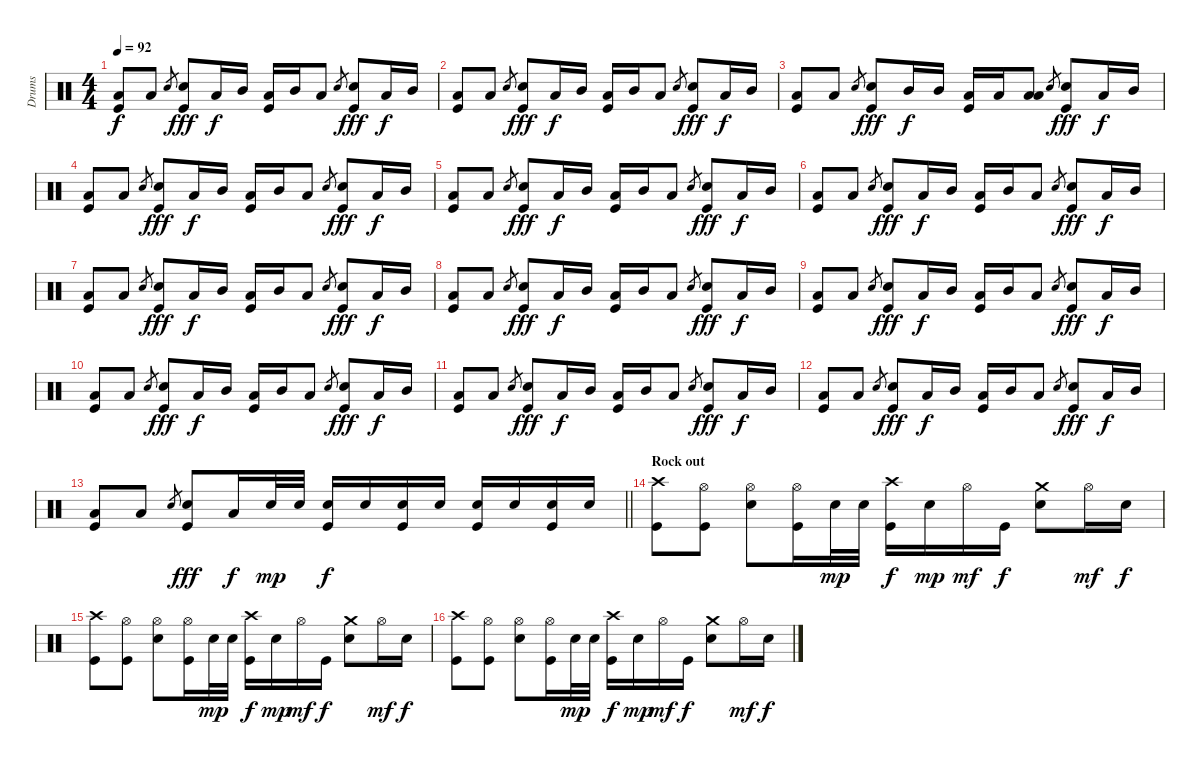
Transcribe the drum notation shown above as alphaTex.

\track ("Drums" "Drums") {instrument percussion}
\staff {score}
\articulation defaults
\ts (4 4)
\tempo 92
\clef neutral
\ks c
("Low Floor Tom (hit)" "Kick (hit)").8{dy f} "Low Floor Tom (hit)".8 "Electric Snare (hit)".8{gr} ("Electric Snare (hit)" "Kick (hit)").8{dy fff} "Low Floor Tom (hit)".16{dy f} "Mid Tom (hit)".16 ("Low Floor Tom (hit)" "Kick (hit)").16 "Mid Tom (hit)".16 "Low Tom (hit)".8 "Electric Snare (hit)".8{gr} ("Electric Snare (hit)" "Kick (hit)").8{dy fff} "Low Tom (hit)".16{dy f} "Mid Tom (hit)".16 |
("Low Floor Tom (hit)" "Kick (hit)").8 "Low Floor Tom (hit)".8 "Electric Snare (hit)".8{gr} ("Electric Snare (hit)" "Kick (hit)").8{dy fff} "Low Floor Tom (hit)".16{dy f} "Mid Tom (hit)".16 ("Low Floor Tom (hit)" "Kick (hit)").16 "Mid Tom (hit)".16 "Low Tom (hit)".8 "Electric Snare (hit)".8{gr} ("Electric Snare (hit)" "Kick (hit)").8{dy fff} "Low Tom (hit)".16{dy f} "Mid Tom (hit)".16 |
("Low Floor Tom (hit)" "Kick (hit)").8 "Low Floor Tom (hit)".8 "Electric Snare (hit)".8{gr} ("Electric Snare (hit)" "Kick (hit)").8{dy fff} "Mid Tom (hit)".16{dy f} "Mid Tom (hit)".16 ("Low Tom (hit)" "Kick (hit)").16 "Low Tom (hit)".16 ("Low Tom (hit)" "Low Floor Tom (hit)").8 "Electric Snare (hit)".8{gr} ("Electric Snare (hit)" "Kick (hit)").8{dy fff} "Low Tom (hit)".16{dy f} "Mid Tom (hit)".16 |
("Low Floor Tom (hit)" "Kick (hit)").8 "Low Floor Tom (hit)".8 "Electric Snare (hit)".8{gr} ("Electric Snare (hit)" "Kick (hit)").8{dy fff} "Low Floor Tom (hit)".16{dy f} "Mid Tom (hit)".16 ("Low Floor Tom (hit)" "Kick (hit)").16 "Mid Tom (hit)".16 "Low Tom (hit)".8 "Electric Snare (hit)".8{gr} ("Electric Snare (hit)" "Kick (hit)").8{dy fff} "Low Tom (hit)".16{dy f} "Mid Tom (hit)".16 |
("Low Floor Tom (hit)" "Kick (hit)").8 "Low Floor Tom (hit)".8 "Electric Snare (hit)".8{gr} ("Electric Snare (hit)" "Kick (hit)").8{dy fff} "Low Floor Tom (hit)".16{dy f} "Mid Tom (hit)".16 ("Low Floor Tom (hit)" "Kick (hit)").16 "Mid Tom (hit)".16 "Low Tom (hit)".8 "Electric Snare (hit)".8{gr} ("Electric Snare (hit)" "Kick (hit)").8{dy fff} "Low Tom (hit)".16{dy f} "Mid Tom (hit)".16 |
("Low Floor Tom (hit)" "Kick (hit)").8 "Low Floor Tom (hit)".8 "Electric Snare (hit)".8{gr} ("Electric Snare (hit)" "Kick (hit)").8{dy fff} "Low Floor Tom (hit)".16{dy f} "Mid Tom (hit)".16 ("Low Floor Tom (hit)" "Kick (hit)").16 "Mid Tom (hit)".16 "Low Tom (hit)".8 "Electric Snare (hit)".8{gr} ("Electric Snare (hit)" "Kick (hit)").8{dy fff} "Low Tom (hit)".16{dy f} "Mid Tom (hit)".16 |
("Low Floor Tom (hit)" "Kick (hit)").8 "Low Floor Tom (hit)".8 "Electric Snare (hit)".8{gr} ("Electric Snare (hit)" "Kick (hit)").8{dy fff} "Low Floor Tom (hit)".16{dy f} "Mid Tom (hit)".16 ("Low Floor Tom (hit)" "Kick (hit)").16 "Mid Tom (hit)".16 "Low Tom (hit)".8 "Electric Snare (hit)".8{gr} ("Electric Snare (hit)" "Kick (hit)").8{dy fff} "Low Tom (hit)".16{dy f} "Mid Tom (hit)".16 |
("Low Floor Tom (hit)" "Kick (hit)").8 "Low Floor Tom (hit)".8 "Electric Snare (hit)".8{gr} ("Electric Snare (hit)" "Kick (hit)").8{dy fff} "Low Floor Tom (hit)".16{dy f} "Mid Tom (hit)".16 ("Low Floor Tom (hit)" "Kick (hit)").16 "Mid Tom (hit)".16 "Low Tom (hit)".8 "Electric Snare (hit)".8{gr} ("Electric Snare (hit)" "Kick (hit)").8{dy fff} "Low Tom (hit)".16{dy f} "Mid Tom (hit)".16 |
("Low Floor Tom (hit)" "Kick (hit)").8 "Low Floor Tom (hit)".8 "Electric Snare (hit)".8{gr} ("Electric Snare (hit)" "Kick (hit)").8{dy fff} "Low Floor Tom (hit)".16{dy f} "Mid Tom (hit)".16 ("Low Floor Tom (hit)" "Kick (hit)").16 "Mid Tom (hit)".16 "Low Tom (hit)".8 "Electric Snare (hit)".8{gr} ("Electric Snare (hit)" "Kick (hit)").8{dy fff} "Low Tom (hit)".16{dy f} "Mid Tom (hit)".16 |
("Low Floor Tom (hit)" "Kick (hit)").8 "Low Floor Tom (hit)".8 "Electric Snare (hit)".8{gr} ("Electric Snare (hit)" "Kick (hit)").8{dy fff} "Low Floor Tom (hit)".16{dy f} "Mid Tom (hit)".16 ("Low Floor Tom (hit)" "Kick (hit)").16 "Mid Tom (hit)".16 "Low Tom (hit)".8 "Electric Snare (hit)".8{gr} ("Electric Snare (hit)" "Kick (hit)").8{dy fff} "Low Tom (hit)".16{dy f} "Mid Tom (hit)".16 |
("Low Floor Tom (hit)" "Kick (hit)").8 "Low Floor Tom (hit)".8 "Electric Snare (hit)".8{gr} ("Electric Snare (hit)" "Kick (hit)").8{dy fff} "Low Floor Tom (hit)".16{dy f} "Mid Tom (hit)".16 ("Low Floor Tom (hit)" "Kick (hit)").16 "Mid Tom (hit)".16 "Low Tom (hit)".8 "Electric Snare (hit)".8{gr} ("Electric Snare (hit)" "Kick (hit)").8{dy fff} "Low Tom (hit)".16{dy f} "Mid Tom (hit)".16 |
("Low Floor Tom (hit)" "Kick (hit)").8 "Low Floor Tom (hit)".8 "Electric Snare (hit)".8{gr} ("Electric Snare (hit)" "Kick (hit)").8{dy fff} "Low Floor Tom (hit)".16{dy f} "Mid Tom (hit)".16 ("Low Floor Tom (hit)" "Kick (hit)").16 "Mid Tom (hit)".16 "Low Tom (hit)".8 "Electric Snare (hit)".8{gr} ("Electric Snare (hit)" "Kick (hit)").8{dy fff} "Low Tom (hit)".16{dy f} "Mid Tom (hit)".16 |
\barLineRight lightlight
("Low Floor Tom (hit)" "Kick (hit)").8 "Low Floor Tom (hit)".8 "Electric Snare (hit)".8{gr} ("Electric Snare (hit)" "Kick (hit)").8{dy fff} "Low Floor Tom (hit)".16{dy f} "Electric Snare (hit)".32{dy mp} "Electric Snare (hit)".32 ("Electric Snare (hit)" "Kick (hit)").16{dy f} "Electric Snare (hit)".16 ("Electric Snare (hit)" "Kick (hit)").16 "Electric Snare (hit)".16 ("Electric Snare (hit)" "Kick (hit)").16 "Electric Snare (hit)".16 ("Electric Snare (hit)" "Kick (hit)").16 "Electric Snare (hit)".16 |
\section ("" "Rock out")
("Crash high (hit)" "Kick (hit)").8 ("Hi-Hat (open)" "Kick (hit)").8 ("Hi-Hat (open)" "Electric Snare (hit)").8 ("Hi-Hat (open)" "Kick (hit)").16 "Electric Snare (hit)".32{dy mp} "Electric Snare (hit)".32 ("Crash high (hit)" "Kick (hit)").16{dy f} "Electric Snare (hit)".16{dy mp} "Hi-Hat (open)".16{dy mf} "Kick (hit)".16{dy f} ("Crash medium (hit)" "Electric Snare (hit)").8 "Hi-Hat (open)".16{dy mf} "Electric Snare (hit)".16{dy f} |
("Crash high (hit)" "Kick (hit)").8 ("Hi-Hat (open)" "Kick (hit)").8 ("Hi-Hat (open)" "Electric Snare (hit)").8 ("Hi-Hat (open)" "Kick (hit)").16 "Electric Snare (hit)".32{dy mp} "Electric Snare (hit)".32 ("Crash high (hit)" "Kick (hit)").16{dy f} "Electric Snare (hit)".16{dy mp} "Hi-Hat (open)".16{dy mf} "Kick (hit)".16{dy f} ("Crash medium (hit)" "Electric Snare (hit)").8 "Hi-Hat (open)".16{dy mf} "Electric Snare (hit)".16{dy f} |
("Crash high (hit)" "Kick (hit)").8 ("Hi-Hat (open)" "Kick (hit)").8 ("Hi-Hat (open)" "Electric Snare (hit)").8 ("Hi-Hat (open)" "Kick (hit)").16 "Electric Snare (hit)".32{dy mp} "Electric Snare (hit)".32 ("Crash high (hit)" "Kick (hit)").16{dy f} "Electric Snare (hit)".16{dy mp} "Hi-Hat (open)".16{dy mf} "Kick (hit)".16{dy f} ("Crash medium (hit)" "Electric Snare (hit)").8 "Hi-Hat (open)".16{dy mf} "Electric Snare (hit)".16{dy f}
